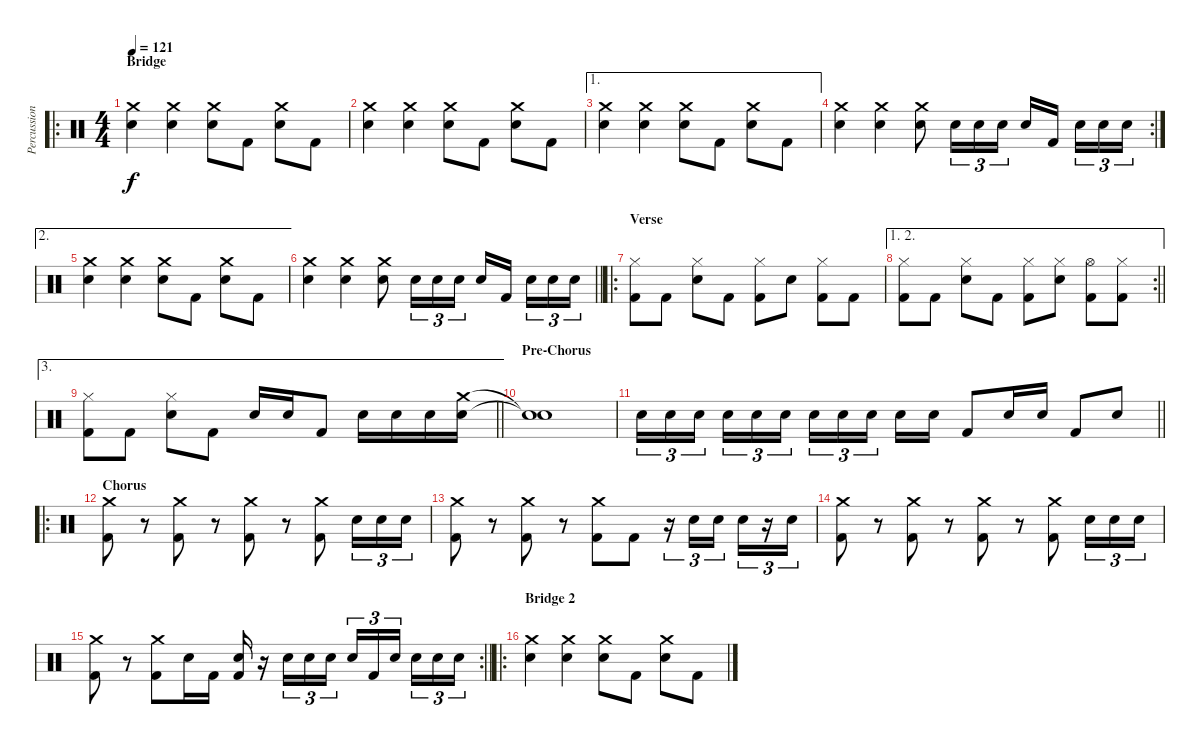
\track ("Percussion" "Percussion") {instrument percussion}
\staff {score}
\articulation defaults
\ro
\ts (4 4)
\section ("" "Bridge")
\tempo 121
\clef neutral
\ks c
("Crash medium (hit)" "Electric Snare (hit)").4{dy f} ("Crash medium (hit)" "Electric Snare (hit)").4 ("Crash medium (hit)" "Electric Snare (hit)").8 "Kick (hit) 2".8 ("Crash medium (hit)" "Electric Snare (hit)").8 "Kick (hit) 2".8 |
("Crash medium (hit)" "Electric Snare (hit)").4 ("Crash medium (hit)" "Electric Snare (hit)").4 ("Crash medium (hit)" "Electric Snare (hit)").8 "Kick (hit) 2".8 ("Crash medium (hit)" "Electric Snare (hit)").8 "Kick (hit) 2".8 |
\ae 1
("Crash medium (hit)" "Electric Snare (hit)").4 ("Crash medium (hit)" "Electric Snare (hit)").4 ("Crash medium (hit)" "Electric Snare (hit)").8 "Kick (hit) 2".8 ("Crash medium (hit)" "Electric Snare (hit)").8 "Kick (hit) 2".8 |
\rc 2
("Crash medium (hit)" "Electric Snare (hit)").4 ("Crash medium (hit)" "Electric Snare (hit)").4 ("Crash medium (hit)" "Electric Snare (hit)").8 "Electric Snare (hit)".16{tu (3 2)} "Electric Snare (hit)".16{tu (3 2)} "Electric Snare (hit)".16{tu (3 2)} "Electric Snare (hit)".16 "Kick (hit) 2".16{beam splitsecondary} "Electric Snare (hit)".16{tu (3 2)} "Electric Snare (hit)".16{tu (3 2)} "Electric Snare (hit)".16{tu (3 2)} |
\ae 2
("Crash medium (hit)" "Electric Snare (hit)").4 ("Crash medium (hit)" "Electric Snare (hit)").4 ("Crash medium (hit)" "Electric Snare (hit)").8 "Kick (hit) 2".8 ("Crash medium (hit)" "Electric Snare (hit)").8 "Kick (hit) 2".8 |
\barLineRight lightlight
("Crash medium (hit)" "Electric Snare (hit)").4 ("Crash medium (hit)" "Electric Snare (hit)").4 ("Crash medium (hit)" "Electric Snare (hit)").8 "Electric Snare (hit)".16{tu (3 2)} "Electric Snare (hit)".16{tu (3 2)} "Electric Snare (hit)".16{tu (3 2)} "Electric Snare (hit)".16 "Kick (hit) 2".16{beam splitsecondary} "Electric Snare (hit)".16{tu (3 2)} "Electric Snare (hit)".16{tu (3 2)} "Electric Snare (hit)".16{tu (3 2)} |
\ro
\section ("" "Verse")
("Hi-Hat (closed)" "Kick (hit) 2").8 "Kick (hit) 2".8 ("Hi-Hat (closed)" "Electric Snare (hit)").8 "Kick (hit) 2".8 ("Hi-Hat (closed)" "Kick (hit) 2").8 "Electric Snare (hit)".8 ("Hi-Hat (closed)" "Kick (hit) 2").8 "Kick (hit) 2".8 |
\ae (1 2)
\rc 2
\barLineRight lightlight
("Hi-Hat (closed)" "Kick (hit) 2").8 "Kick (hit) 2".8 ("Hi-Hat (closed)" "Electric Snare (hit)").8 "Kick (hit) 2".8 ("Hi-Hat (closed)" "Kick (hit) 2").8 ("Hi-Hat (closed)" "Electric Snare (hit)").8 ("Hi-Hat (open)" "Kick (hit) 2").8 ("Hi-Hat (closed)" "Kick (hit) 2").8 |
\ae 3
\barLineRight lightlight
("Hi-Hat (closed)" "Kick (hit) 2").8 "Kick (hit) 2".8 ("Hi-Hat (closed)" "Electric Snare (hit)").8 "Kick (hit) 2".8 "Electric Snare (hit)".16 "Electric Snare (hit)".16 "Kick (hit) 2".8 "Electric Snare (hit)".16 "Electric Snare (hit)".16 "Electric Snare (hit)".16 ("Crash medium (hit)" "Electric Snare (hit)").16 |
\section ("" "Pre-Chorus")
("Snare (hit)"{t} "Snare (hit)"{t}).1 |
\barLineRight lightlight "Electric Snare (hit)".16{tu (3 2)} "Electric Snare (hit)".16{tu (3 2)} "Electric Snare (hit)".16{tu (3 2) beam splitsecondary} "Electric Snare (hit)".16{tu (3 2)} "Electric Snare (hit)".16{tu (3 2)} "Electric Snare (hit)".16{tu (3 2)} "Electric Snare (hit)".16{tu (3 2)} "Electric Snare (hit)".16{tu (3 2)} "Electric Snare (hit)".16{tu (3 2) beam splitsecondary} "Electric Snare (hit)".16 "Electric Snare (hit)".16 "Kick (hit) 2".8 "Electric Snare (hit)".16 "Electric Snare (hit)".16 "Kick (hit) 2".8 "Electric Snare (hit)".8
|
\ro
\section ("" "Chorus")
("Crash medium (hit)" "Kick (hit) 2").8 r.8 ("Crash medium (hit)" "Kick (hit) 2").8 r.8 ("Crash medium (hit)" "Kick (hit) 2").8 r.8 ("Crash medium (hit)" "Kick (hit) 2").8 "Electric Snare (hit)".16{tu (3 2)} "Electric Snare (hit)".16{tu (3 2)} "Electric Snare (hit)".16{tu (3 2)} |
("Crash medium (hit)" "Kick (hit) 2").8 r.8 ("Crash medium (hit)" "Kick (hit) 2").8 r.8 ("Crash medium (hit)" "Kick (hit) 2").8 "Kick (hit) 2".8 r.16{tu (3 2)} "Electric Snare (hit)".16{tu (3 2)} "Electric Snare (hit)".16{tu (3 2) beam splitsecondary} "Electric Snare (hit)".16{tu (3 2)} r.16{tu (3 2)} "Electric Snare (hit)".16{tu (3 2)} |
("Crash medium (hit)" "Kick (hit) 2").8 r.8 ("Crash medium (hit)" "Kick (hit) 2").8 r.8 ("Crash medium (hit)" "Kick (hit) 2").8 r.8 ("Crash medium (hit)" "Kick (hit) 2").8 "Electric Snare (hit)".16{tu (3 2)} "Electric Snare (hit)".16{tu (3 2)} "Electric Snare (hit)".16{tu (3 2)} |
\rc 2
\barLineRight lightlight
("Crash medium (hit)" "Kick (hit) 2").8 r.8 ("Crash medium (hit)" "Kick (hit) 2").8 "Electric Snare (hit)".16 "Kick (hit) 2".16 ("Electric Snare (hit)" "Kick (hit) 2").16 r.16 "Electric Snare (hit)".16{tu (3 2)} "Electric Snare (hit)".16{tu (3 2)} "Electric Snare (hit)".16{tu (3 2)} "Electric Snare (hit)".16{tu (3 2)} "Kick (hit) 2".16{tu (3 2)} "Electric Snare (hit)".16{tu (3 2) beam splitsecondary} "Electric Snare (hit)".16{tu (3 2)} "Electric Snare (hit)".16{tu (3 2)} "Electric Snare (hit)".16{tu (3 2)} |
\ro
\section ("" "Bridge 2")
("Crash medium (hit)" "Electric Snare (hit)").4 ("Crash medium (hit)" "Electric Snare (hit)").4 ("Crash medium (hit)" "Electric Snare (hit)").8 "Kick (hit) 2".8 ("Crash medium (hit)" "Electric Snare (hit)").8 "Kick (hit) 2".8
